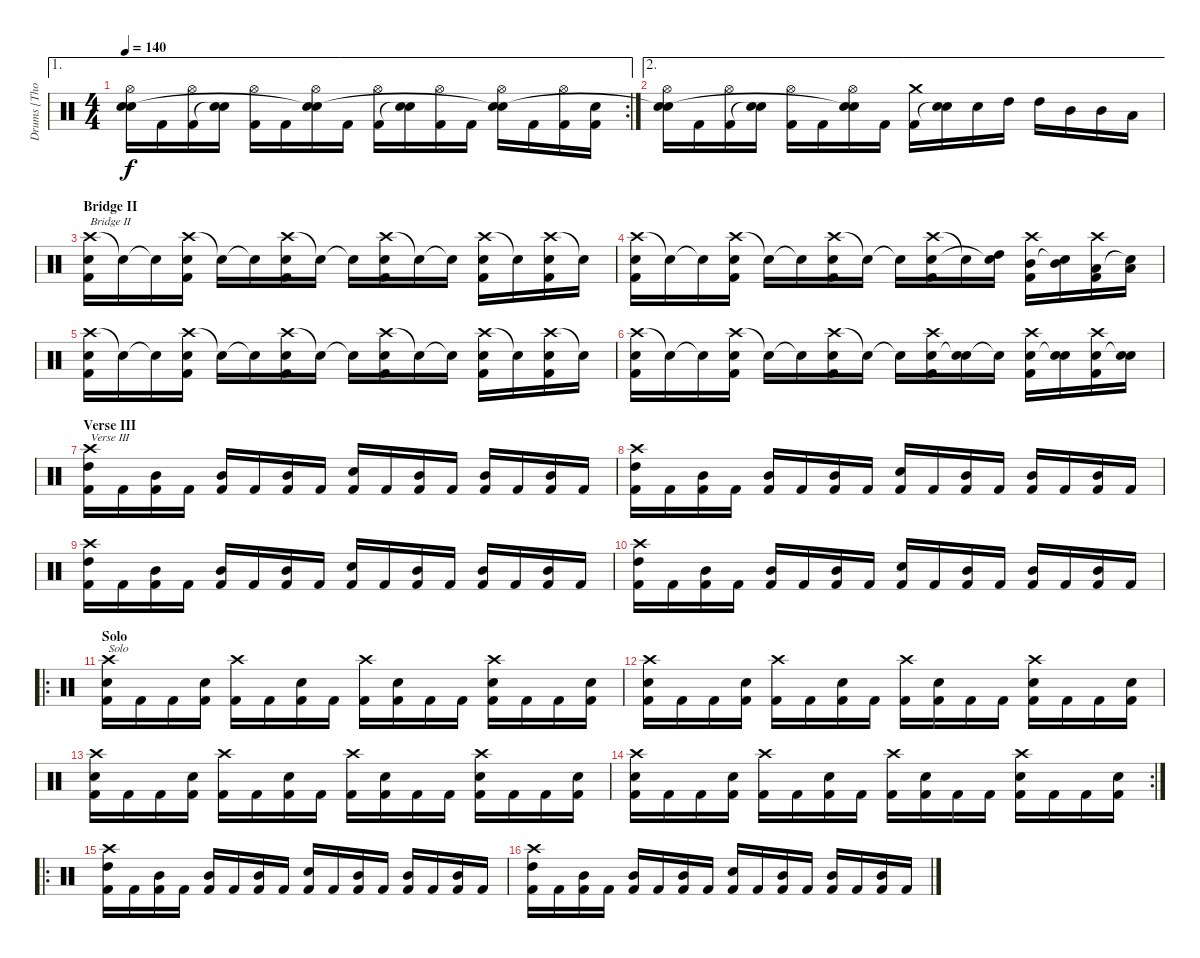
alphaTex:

\track ("Drums [Thomas Haake]" "Drums [Tho") {instrument percussion}
\staff {score}
\articulation defaults
\ae 1
\rc 2
\ts (4 4)
\tempo 140
\clef neutral
\ks c
("Hi-Hat (open)" "Electric Snare (hit)" "Snare (hit)"{t}).16{dy f} "Kick (hit) 2".16 ("Hi-Hat (open)" "Kick (hit) 2").16 ("Electric Snare (hit)" "Snare (hit)"{t}).16 ("Hi-Hat (open)" "Kick (hit) 2").16 "Kick (hit) 2".16 ("Hi-Hat (open)" "Electric Snare (hit)" "Snare (hit)"{t}).16 "Kick (hit) 2".16 ("Hi-Hat (open)" "Kick (hit) 2").16 ("Electric Snare (hit)" "Snare (hit)"{t}).16 ("Hi-Hat (open)" "Kick (hit) 2").16 "Kick (hit) 2".16 ("Hi-Hat (open)" "Electric Snare (hit)" "Snare (hit)"{t}).16 "Kick (hit) 2".16 ("Hi-Hat (open)" "Kick (hit) 2").16 ("Electric Snare (hit)" "Kick (hit) 2").16 |
\ae 2
("Hi-Hat (open)" "Electric Snare (hit)" "Snare (hit)"{t}).16 "Kick (hit) 2".16 ("Hi-Hat (open)" "Kick (hit) 2").16 ("Electric Snare (hit)" "Snare (hit)"{t}).16 ("Hi-Hat (open)" "Kick (hit) 2").16 "Kick (hit) 2".16 ("Hi-Hat (open)" "Electric Snare (hit)" "Snare (hit)"{t}).16 "Kick (hit) 2".16 ("Crash medium (hit)" "Kick (hit) 2").16 ("Electric Snare (hit)" "Snare (hit)"{t}).16 "Electric Snare (hit)".16 "High Tom (hit)".16 "High Tom (hit)".16 "Mid Tom (hit)".16 "Mid Tom (hit)".16 "Low Tom (hit)".16 |
\section ("" "Bridge II")
("Crash high (hit)" "Electric Snare (hit)" "Kick (hit) 2").16{txt "Bridge II"} "Snare (hit)"{t}.16 "Snare (hit)"{t}.16 ("Crash high (hit)" "Electric Snare (hit)" "Kick (hit) 2").16 "Snare (hit)"{t}.16 "Snare (hit)"{t}.16 ("Crash high (hit)" "Electric Snare (hit)" "Kick (hit) 2").16 "Snare (hit)"{t}.16 "Snare (hit)"{t}.16 ("Crash high (hit)" "Electric Snare (hit)" "Kick (hit) 2").16 "Snare (hit)"{t}.16 "Snare (hit)"{t}.16 ("Crash high (hit)" "Electric Snare (hit)" "Kick (hit) 2").16 "Snare (hit)"{t}.16 ("Crash high (hit)" "Electric Snare (hit)" "Kick (hit) 2").16 "Snare (hit)"{t}.16 |
("Crash high (hit)" "Electric Snare (hit)" "Kick (hit) 2").16 "Snare (hit)"{t}.16 "Snare (hit)"{t}.16 ("Crash high (hit)" "Electric Snare (hit)" "Kick (hit) 2").16 "Snare (hit)"{t}.16 "Snare (hit)"{t}.16 ("Crash high (hit)" "Electric Snare (hit)" "Kick (hit) 2").16 "Snare (hit)"{t}.16 "Snare (hit)"{t}.16 ("Crash high (hit)" "Electric Snare (hit)" "Kick (hit) 2").16 "Snare (hit)"{t}.16 ("High Tom (hit)" "Snare (hit)"{t}).16 ("Crash high (hit)" "Mid Tom (hit)" "Kick (hit) 2").16 ("Mid Tom (hit)" "Snare (hit)"{t}).16 ("Crash high (hit)" "Low Tom (hit)" "Kick (hit) 2").16 ("Low Tom (hit)" "Snare (hit)"{t}).16 |
("Crash high (hit)" "Electric Snare (hit)" "Kick (hit) 2").16 "Snare (hit)"{t}.16 "Snare (hit)"{t}.16 ("Crash high (hit)" "Electric Snare (hit)" "Kick (hit) 2").16 "Snare (hit)"{t}.16 "Snare (hit)"{t}.16 ("Crash high (hit)" "Electric Snare (hit)" "Kick (hit) 2").16 "Snare (hit)"{t}.16 "Snare (hit)"{t}.16 ("Crash high (hit)" "Electric Snare (hit)" "Kick (hit) 2").16 "Snare (hit)"{t}.16 "Snare (hit)"{t}.16 ("Crash high (hit)" "Electric Snare (hit)" "Kick (hit) 2").16 "Snare (hit)"{t}.16 ("Crash high (hit)" "Electric Snare (hit)" "Kick (hit) 2").16 "Snare (hit)"{t}.16 |
("Crash high (hit)" "Electric Snare (hit)" "Kick (hit) 2").16 "Snare (hit)"{t}.16 "Snare (hit)"{t}.16 ("Crash high (hit)" "Electric Snare (hit)" "Kick (hit) 2").16 "Snare (hit)"{t}.16 "Snare (hit)"{t}.16 ("Crash high (hit)" "Electric Snare (hit)" "Kick (hit) 2").16 "Snare (hit)"{t}.16 "Snare (hit)"{t}.16 ("Crash high (hit)" "Electric Snare (hit)" "Kick (hit) 2").16 ("Electric Snare (hit)" "Snare (hit)"{t}).16 "Snare (hit)"{t}.16 ("Crash high (hit)" "Electric Snare (hit)" "Kick (hit) 2").16 ("Electric Snare (hit)" "Snare (hit)"{t}).16 ("Crash high (hit)" "Electric Snare (hit)" "Kick (hit) 2").16 ("Electric Snare (hit)" "Snare (hit)"{t}).16 |
\section ("" "Verse III")
("Crash high (hit)" "High Tom (hit)" "Kick (hit) 2").16{txt "Verse III"} "Kick (hit) 2".16 ("Mid Tom (hit)" "Kick (hit) 2").16 "Kick (hit) 2".16 ("Mid Tom (hit)" "Kick (hit) 2").16 "Kick (hit) 2".16 ("Mid Tom (hit)" "Kick (hit) 2").16 "Kick (hit) 2".16 ("Electric Snare (hit)" "Kick (hit) 2").16 "Kick (hit) 2".16 ("Mid Tom (hit)" "Kick (hit) 2").16 "Kick (hit) 2".16 ("Mid Tom (hit)" "Kick (hit) 2").16 "Kick (hit) 2".16 ("Mid Tom (hit)" "Kick (hit) 2").16 "Kick (hit) 2".16 |
("Crash high (hit)" "High Tom (hit)" "Kick (hit) 2").16 "Kick (hit) 2".16 ("Mid Tom (hit)" "Kick (hit) 2").16 "Kick (hit) 2".16 ("Mid Tom (hit)" "Kick (hit) 2").16 "Kick (hit) 2".16 ("Mid Tom (hit)" "Kick (hit) 2").16 "Kick (hit) 2".16 ("Electric Snare (hit)" "Kick (hit) 2").16 "Kick (hit) 2".16 ("Mid Tom (hit)" "Kick (hit) 2").16 "Kick (hit) 2".16 ("Mid Tom (hit)" "Kick (hit) 2").16 "Kick (hit) 2".16 ("Mid Tom (hit)" "Kick (hit) 2").16 "Kick (hit) 2".16 |
("Crash high (hit)" "High Tom (hit)" "Kick (hit) 2").16 "Kick (hit) 2".16 ("Mid Tom (hit)" "Kick (hit) 2").16 "Kick (hit) 2".16 ("Mid Tom (hit)" "Kick (hit) 2").16 "Kick (hit) 2".16 ("Mid Tom (hit)" "Kick (hit) 2").16 "Kick (hit) 2".16 ("Electric Snare (hit)" "Kick (hit) 2").16 "Kick (hit) 2".16 ("Mid Tom (hit)" "Kick (hit) 2").16 "Kick (hit) 2".16 ("Mid Tom (hit)" "Kick (hit) 2").16 "Kick (hit) 2".16 ("Mid Tom (hit)" "Kick (hit) 2").16 "Kick (hit) 2".16 |
("Crash high (hit)" "High Tom (hit)" "Kick (hit) 2").16 "Kick (hit) 2".16 ("Mid Tom (hit)" "Kick (hit) 2").16 "Kick (hit) 2".16 ("Mid Tom (hit)" "Kick (hit) 2").16 "Kick (hit) 2".16 ("Mid Tom (hit)" "Kick (hit) 2").16 "Kick (hit) 2".16 ("Electric Snare (hit)" "Kick (hit) 2").16 "Kick (hit) 2".16 ("Mid Tom (hit)" "Kick (hit) 2").16 "Kick (hit) 2".16 ("Mid Tom (hit)" "Kick (hit) 2").16 "Kick (hit) 2".16 ("Mid Tom (hit)" "Kick (hit) 2").16 "Kick (hit) 2".16 |
\ro
\section ("" "Solo")
("Crash high (hit)" "Electric Snare (hit)" "Kick (hit) 2").16{txt "Solo"} "Kick (hit) 2".16 "Kick (hit) 2".16 ("Electric Snare (hit)" "Kick (hit) 2").16 ("Crash high (hit)" "Kick (hit) 2").16 "Kick (hit) 2".16 ("Electric Snare (hit)" "Kick (hit) 2").16 "Kick (hit) 2".16 ("Crash high (hit)" "Kick (hit) 2").16 ("Electric Snare (hit)" "Kick (hit) 2").16 "Kick (hit) 2".16 "Kick (hit) 2".16 ("Crash high (hit)" "Electric Snare (hit)" "Kick (hit) 2").16 "Kick (hit) 2".16 "Kick (hit) 2".16 ("Electric Snare (hit)" "Kick (hit) 2").16 |
("Crash high (hit)" "Electric Snare (hit)" "Kick (hit) 2").16 "Kick (hit) 2".16 "Kick (hit) 2".16 ("Electric Snare (hit)" "Kick (hit) 2").16 ("Crash high (hit)" "Kick (hit) 2").16 "Kick (hit) 2".16 ("Electric Snare (hit)" "Kick (hit) 2").16 "Kick (hit) 2".16 ("Crash high (hit)" "Kick (hit) 2").16 ("Electric Snare (hit)" "Kick (hit) 2").16 "Kick (hit) 2".16 "Kick (hit) 2".16 ("Crash high (hit)" "Electric Snare (hit)" "Kick (hit) 2").16 "Kick (hit) 2".16 "Kick (hit) 2".16 ("Electric Snare (hit)" "Kick (hit) 2").16 |
("Crash high (hit)" "Electric Snare (hit)" "Kick (hit) 2").16 "Kick (hit) 2".16 "Kick (hit) 2".16 ("Electric Snare (hit)" "Kick (hit) 2").16 ("Crash high (hit)" "Kick (hit) 2").16 "Kick (hit) 2".16 ("Electric Snare (hit)" "Kick (hit) 2").16 "Kick (hit) 2".16 ("Crash high (hit)" "Kick (hit) 2").16 ("Electric Snare (hit)" "Kick (hit) 2").16 "Kick (hit) 2".16 "Kick (hit) 2".16 ("Crash high (hit)" "Electric Snare (hit)" "Kick (hit) 2").16 "Kick (hit) 2".16 "Kick (hit) 2".16 ("Electric Snare (hit)" "Kick (hit) 2").16 |
\rc 2
("Crash high (hit)" "Electric Snare (hit)" "Kick (hit) 2").16 "Kick (hit) 2".16 "Kick (hit) 2".16 ("Electric Snare (hit)" "Kick (hit) 2").16 ("Crash high (hit)" "Kick (hit) 2").16 "Kick (hit) 2".16 ("Electric Snare (hit)" "Kick (hit) 2").16 "Kick (hit) 2".16 ("Crash high (hit)" "Kick (hit) 2").16 ("Electric Snare (hit)" "Kick (hit) 2").16 "Kick (hit) 2".16 "Kick (hit) 2".16 ("Crash high (hit)" "Electric Snare (hit)" "Kick (hit) 2").16 "Kick (hit) 2".16 "Kick (hit) 2".16 ("Electric Snare (hit)" "Kick (hit) 2").16 |
\ro
("Crash high (hit)" "High Tom (hit)" "Kick (hit) 2").16 "Kick (hit) 2".16 ("Mid Tom (hit)" "Kick (hit) 2").16 "Kick (hit) 2".16 ("Mid Tom (hit)" "Kick (hit) 2").16 "Kick (hit) 2".16 ("Mid Tom (hit)" "Kick (hit) 2").16 "Kick (hit) 2".16 ("Electric Snare (hit)" "Kick (hit) 2").16 "Kick (hit) 2".16 ("Mid Tom (hit)" "Kick (hit) 2").16 "Kick (hit) 2".16 ("Mid Tom (hit)" "Kick (hit) 2").16 "Kick (hit) 2".16 ("Mid Tom (hit)" "Kick (hit) 2").16 "Kick (hit) 2".16 |
("Crash high (hit)" "High Tom (hit)" "Kick (hit) 2").16 "Kick (hit) 2".16 ("Mid Tom (hit)" "Kick (hit) 2").16 "Kick (hit) 2".16 ("Mid Tom (hit)" "Kick (hit) 2").16 "Kick (hit) 2".16 ("Mid Tom (hit)" "Kick (hit) 2").16 "Kick (hit) 2".16 ("Electric Snare (hit)" "Kick (hit) 2").16 "Kick (hit) 2".16 ("Mid Tom (hit)" "Kick (hit) 2").16 "Kick (hit) 2".16 ("Mid Tom (hit)" "Kick (hit) 2").16 "Kick (hit) 2".16 ("Mid Tom (hit)" "Kick (hit) 2").16 "Kick (hit) 2".16
